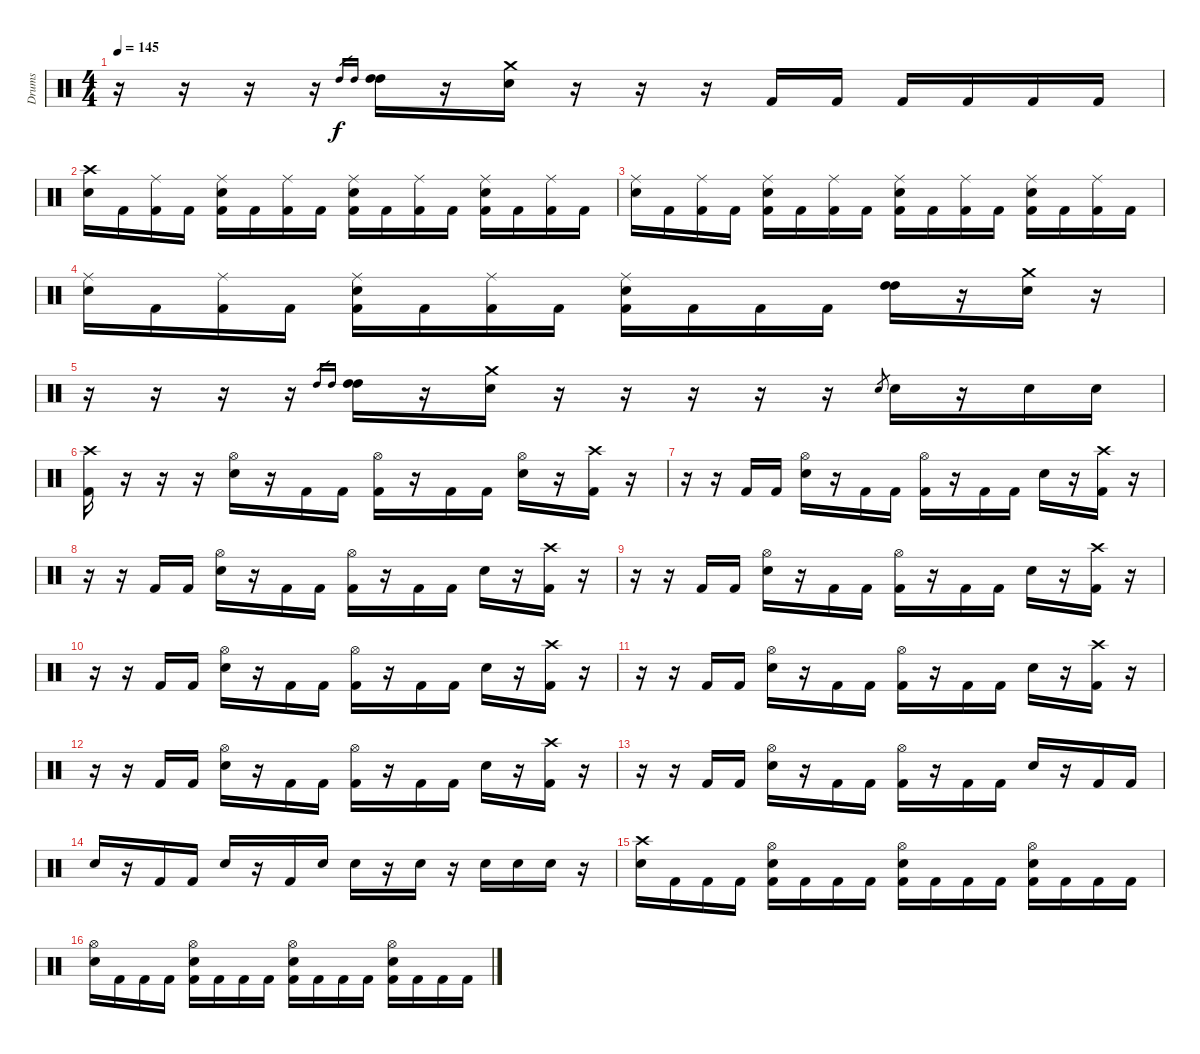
\track ("Drums" "Drums") {instrument percussion}
\staff {score}
\articulation defaults
\ts (4 4)
\tempo 145
\clef neutral
\ks c
r.16{dy f} r.16 r.16 r.16 "High Tom (hit)".16{gr} "High Tom (hit)".16{gr} ("High Tom (hit)" "High Tom (hit)").16 r.16 ("Crash medium (hit)" "Snare (hit) 2").16 r.16 r.16 r.16 "Kick (hit) 2".16 "Kick (hit) 2".16 "Kick (hit) 2".16 "Kick (hit) 2".16 "Kick (hit) 2".16 "Kick (hit) 2".16 |
("Crash high (hit)" "Snare (hit) 2").16 "Kick (hit) 2".16 ("Ride (middle)" "Kick (hit) 2").16 "Kick (hit) 2".16 ("Ride (middle)" "Snare (hit) 2" "Kick (hit) 2").16 "Kick (hit) 2".16 ("Ride (middle)" "Kick (hit) 2").16 "Kick (hit) 2".16 ("Ride (middle)" "Snare (hit) 2" "Kick (hit) 2").16 "Kick (hit) 2".16 ("Ride (middle)" "Kick (hit) 2").16 "Kick (hit) 2".16 ("Ride (middle)" "Snare (hit) 2" "Kick (hit) 2").16 "Kick (hit) 2".16 ("Ride (middle)" "Kick (hit) 2").16 "Kick (hit) 2".16 |
("Ride (middle)" "Snare (hit) 2").16 "Kick (hit) 2".16 ("Ride (middle)" "Kick (hit) 2").16 "Kick (hit) 2".16 ("Ride (middle)" "Snare (hit) 2" "Kick (hit) 2").16 "Kick (hit) 2".16 ("Ride (middle)" "Kick (hit) 2").16 "Kick (hit) 2".16 ("Ride (middle)" "Snare (hit) 2" "Kick (hit) 2").16 "Kick (hit) 2".16 ("Ride (middle)" "Kick (hit) 2").16 "Kick (hit) 2".16 ("Ride (middle)" "Snare (hit) 2" "Kick (hit) 2").16 "Kick (hit) 2".16 ("Ride (middle)" "Kick (hit) 2").16 "Kick (hit) 2".16 |
("Ride (middle)" "Snare (hit) 2").16 "Kick (hit) 2".16 ("Ride (middle)" "Kick (hit) 2").16 "Kick (hit) 2".16 ("Ride (middle)" "Snare (hit) 2" "Kick (hit) 2").16 "Kick (hit) 2".16 ("Ride (middle)" "Kick (hit) 2").16 "Kick (hit) 2".16 ("Ride (middle)" "Snare (hit) 2" "Kick (hit) 2").16 "Kick (hit) 2".16 "Kick (hit) 2".16 "Kick (hit) 2".16 ("High Tom (hit)" "High Tom (hit)").16 r.16 ("Crash medium (hit)" "Snare (hit) 2").16 r.16 |
r.16 r.16 r.16 r.16 "High Tom (hit)".16{gr} "High Tom (hit)".16{gr} ("High Tom (hit)" "High Tom (hit)").16 r.16 ("Crash medium (hit)" "Snare (hit) 2").16 r.16 r.16 r.16 r.16 r.16 "Snare (hit) 2".8{gr} "Snare (hit) 2".16 r.16 "Snare (hit) 2".16 "Snare (hit) 2".16 |
("Crash high (hit)" "Kick (hit) 2").16 r.16 r.16 r.16 ("Hi-Hat (open)" "Snare (hit) 2").16 r.16 "Kick (hit) 2".16 "Kick (hit) 2".16 ("Hi-Hat (open)" "Kick (hit) 2").16 r.16 "Kick (hit) 2".16 "Kick (hit) 2".16 ("Hi-Hat (open)" "Snare (hit) 2").16 r.16 ("Crash high (hit)" "Kick (hit) 2").16 r.16 |
r.16 r.16 "Kick (hit) 2".16 "Kick (hit) 2".16 ("Hi-Hat (open)" "Snare (hit) 2").16 r.16 "Kick (hit) 2".16 "Kick (hit) 2".16 ("Hi-Hat (open)" "Kick (hit) 2").16 r.16 "Kick (hit) 2".16 "Kick (hit) 2".16 "Snare (hit) 2".16 r.16 ("Crash high (hit)" "Kick (hit) 2").16 r.16 |
r.16 r.16 "Kick (hit) 2".16 "Kick (hit) 2".16 ("Hi-Hat (open)" "Snare (hit) 2").16 r.16 "Kick (hit) 2".16 "Kick (hit) 2".16 ("Hi-Hat (open)" "Kick (hit) 2").16 r.16 "Kick (hit) 2".16 "Kick (hit) 2".16 "Snare (hit) 2".16 r.16 ("Crash high (hit)" "Kick (hit) 2").16 r.16 |
r.16 r.16 "Kick (hit) 2".16 "Kick (hit) 2".16 ("Hi-Hat (open)" "Snare (hit) 2").16 r.16 "Kick (hit) 2".16 "Kick (hit) 2".16 ("Hi-Hat (open)" "Kick (hit) 2").16 r.16 "Kick (hit) 2".16 "Kick (hit) 2".16 "Snare (hit) 2".16 r.16 ("Crash high (hit)" "Kick (hit) 2").16 r.16 |
r.16 r.16 "Kick (hit) 2".16 "Kick (hit) 2".16 ("Hi-Hat (open)" "Snare (hit) 2").16 r.16 "Kick (hit) 2".16 "Kick (hit) 2".16 ("Hi-Hat (open)" "Kick (hit) 2").16 r.16 "Kick (hit) 2".16 "Kick (hit) 2".16 "Snare (hit) 2".16 r.16 ("Crash high (hit)" "Kick (hit) 2").16 r.16 |
r.16 r.16 "Kick (hit) 2".16 "Kick (hit) 2".16 ("Hi-Hat (open)" "Snare (hit) 2").16 r.16 "Kick (hit) 2".16 "Kick (hit) 2".16 ("Hi-Hat (open)" "Kick (hit) 2").16 r.16 "Kick (hit) 2".16 "Kick (hit) 2".16 "Snare (hit) 2".16 r.16 ("Crash high (hit)" "Kick (hit) 2").16 r.16 |
r.16 r.16 "Kick (hit) 2".16 "Kick (hit) 2".16 ("Hi-Hat (open)" "Snare (hit) 2").16 r.16 "Kick (hit) 2".16 "Kick (hit) 2".16 ("Hi-Hat (open)" "Kick (hit) 2").16 r.16 "Kick (hit) 2".16 "Kick (hit) 2".16 "Snare (hit) 2".16 r.16 ("Crash high (hit)" "Kick (hit) 2").16 r.16 |
r.16 r.16 "Kick (hit) 2".16 "Kick (hit) 2".16 ("Hi-Hat (open)" "Snare (hit) 2").16 r.16 "Kick (hit) 2".16 "Kick (hit) 2".16 ("Hi-Hat (open)" "Kick (hit) 2").16 r.16 "Kick (hit) 2".16 "Kick (hit) 2".16 "Snare (hit) 2".16 r.16 "Kick (hit) 2".16 "Kick (hit) 2".16 |
"Snare (hit) 2".16 r.16 "Kick (hit) 2".16 "Kick (hit) 2".16 "Snare (hit) 2".16 r.16 "Kick (hit) 2".16 "Snare (hit) 2".16 "Snare (hit) 2".16 r.16 "Snare (hit) 2".16 r.16 "Snare (hit) 2".16 "Snare (hit) 2".16 "Snare (hit) 2".16 r.16 |
("Crash high (hit)" "Snare (hit) 2").16 "Kick (hit) 2".16 "Kick (hit) 2".16 "Kick (hit) 2".16 ("Hi-Hat (open)" "Snare (hit) 2" "Kick (hit) 2").16 "Kick (hit) 2".16 "Kick (hit) 2".16 "Kick (hit) 2".16 ("Hi-Hat (open)" "Snare (hit) 2" "Kick (hit) 2").16 "Kick (hit) 2".16 "Kick (hit) 2".16 "Kick (hit) 2".16 ("Hi-Hat (open)" "Snare (hit) 2" "Kick (hit) 2").16 "Kick (hit) 2".16 "Kick (hit) 2".16 "Kick (hit) 2".16 |
("Hi-Hat (open)" "Snare (hit) 2").16 "Kick (hit) 2".16 "Kick (hit) 2".16 "Kick (hit) 2".16 ("Hi-Hat (open)" "Snare (hit) 2" "Kick (hit) 2").16 "Kick (hit) 2".16 "Kick (hit) 2".16 "Kick (hit) 2".16 ("Hi-Hat (open)" "Snare (hit) 2" "Kick (hit) 2").16 "Kick (hit) 2".16 "Kick (hit) 2".16 "Kick (hit) 2".16 ("Hi-Hat (open)" "Snare (hit) 2" "Kick (hit) 2").16 "Kick (hit) 2".16 "Kick (hit) 2".16 "Kick (hit) 2".16
